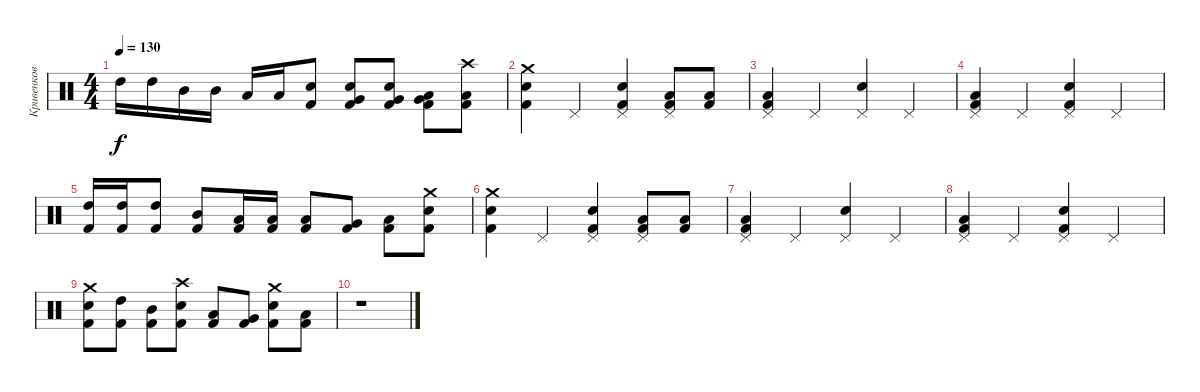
\track ("Кривенков Дмитрий" "Кривенков ") {instrument percussion}
\staff {score}
\articulation defaults
\ts (4 4)
\tempo 130
\clef neutral
\ks c "High Tom (hit)".16{dy f} "High Tom (hit)".16 "Mid Tom (hit)".16 "Mid Tom (hit)".16 "Low Tom (hit)".16 "Low Tom (hit)".16
("Electric Snare (hit)" "Kick (hit) 2").8 ("Electric Snare (hit)" "Very Low Tom (hit)" "Kick (hit) 2").8 ("Electric Snare (hit)" "Very Low Tom (hit)" "Kick (hit) 2").8 ("Kick (hit) 2" "Low Floor Tom (hit)" "Very Low Tom (hit)").8 ("Crash high (hit)" "Kick (hit) 2" "Low Floor Tom (hit)").8 |
("Kick (hit) 2" "Electric Snare (hit)" "Crash medium (hit)").4 "Pedal Hi-Hat (hit)".4 ("Pedal Hi-Hat (hit)" "Kick (hit) 2" "Electric Snare (hit)").4 ("Kick (hit) 2" "Pedal Hi-Hat (hit)" "Low Floor Tom (hit)").8 ("Low Floor Tom (hit)" "Kick (hit) 2").8 |
("Kick (hit) 2" "Pedal Hi-Hat (hit)" "Low Floor Tom (hit)").4 "Pedal Hi-Hat (hit)".4 ("Pedal Hi-Hat (hit)" "Electric Snare (hit)").4 "Pedal Hi-Hat (hit)".4 |
("Kick (hit) 2" "Pedal Hi-Hat (hit)" "Low Floor Tom (hit)").4 "Pedal Hi-Hat (hit)".4 ("Kick (hit) 2" "Pedal Hi-Hat (hit)" "Electric Snare (hit)").4 "Pedal Hi-Hat (hit)".4 |
("High Tom (hit)" "Kick (hit) 2").16{volume 11} ("High Tom (hit)" "Kick (hit) 2").16{volume 11} ("High Tom (hit)" "Kick (hit) 2").8{volume 10} ("Mid Tom (hit)" "Kick (hit) 2").8{volume 10} ("Low Tom (hit)" "Kick (hit) 2").16{volume 10} ("Low Tom (hit)" "Kick (hit) 2").16{volume 10} ("Low Tom (hit)" "Kick (hit) 2").8{volume 10} ("Very Low Tom (hit)" "Kick (hit) 2").8{volume 9} ("Low Floor Tom (hit)" "Kick (hit) 2").8{volume 9} ("Electric Snare (hit)" "Kick (hit) 2" "Crash medium (hit)").8{volume 8} |
("Kick (hit) 2" "Electric Snare (hit)" "Crash medium (hit)").4{volume 8} "Pedal Hi-Hat (hit)".4{volume 8} ("Pedal Hi-Hat (hit)" "Kick (hit) 2" "Electric Snare (hit)").4{volume 7} ("Kick (hit) 2" "Pedal Hi-Hat (hit)" "Low Floor Tom (hit)").8{volume 6} ("Low Floor Tom (hit)" "Kick (hit) 2").8{volume 6} |
("Kick (hit) 2" "Pedal Hi-Hat (hit)" "Low Floor Tom (hit)").4{volume 5} "Pedal Hi-Hat (hit)".4{volume 5} ("Pedal Hi-Hat (hit)" "Electric Snare (hit)").4{volume 4} "Pedal Hi-Hat (hit)".4{volume 3} |
("Kick (hit) 2" "Pedal Hi-Hat (hit)" "Low Floor Tom (hit)").4{volume 3} "Pedal Hi-Hat (hit)".4{volume 2} ("Kick (hit) 2" "Pedal Hi-Hat (hit)" "Electric Snare (hit)").4{volume 1} "Pedal Hi-Hat (hit)".4{volume 1} |
("Crash medium (hit)" "Electric Snare (hit)" "Kick (hit) 2").8{volume 0} ("Kick (hit) 2" "High Tom (hit)").8 ("Mid Tom (hit)" "Kick (hit) 2").8 ("Crash high (hit)" "Electric Snare (hit)" "Kick (hit) 2").8 ("Kick (hit) 2" "Low Tom (hit)").8 ("Kick (hit) 2" "Very Low Tom (hit)").8 ("Crash medium (hit)" "Electric Snare (hit)" "Kick (hit) 2").8 ("Kick (hit) 2" "Low Floor Tom (hit)").8 |
r.1
